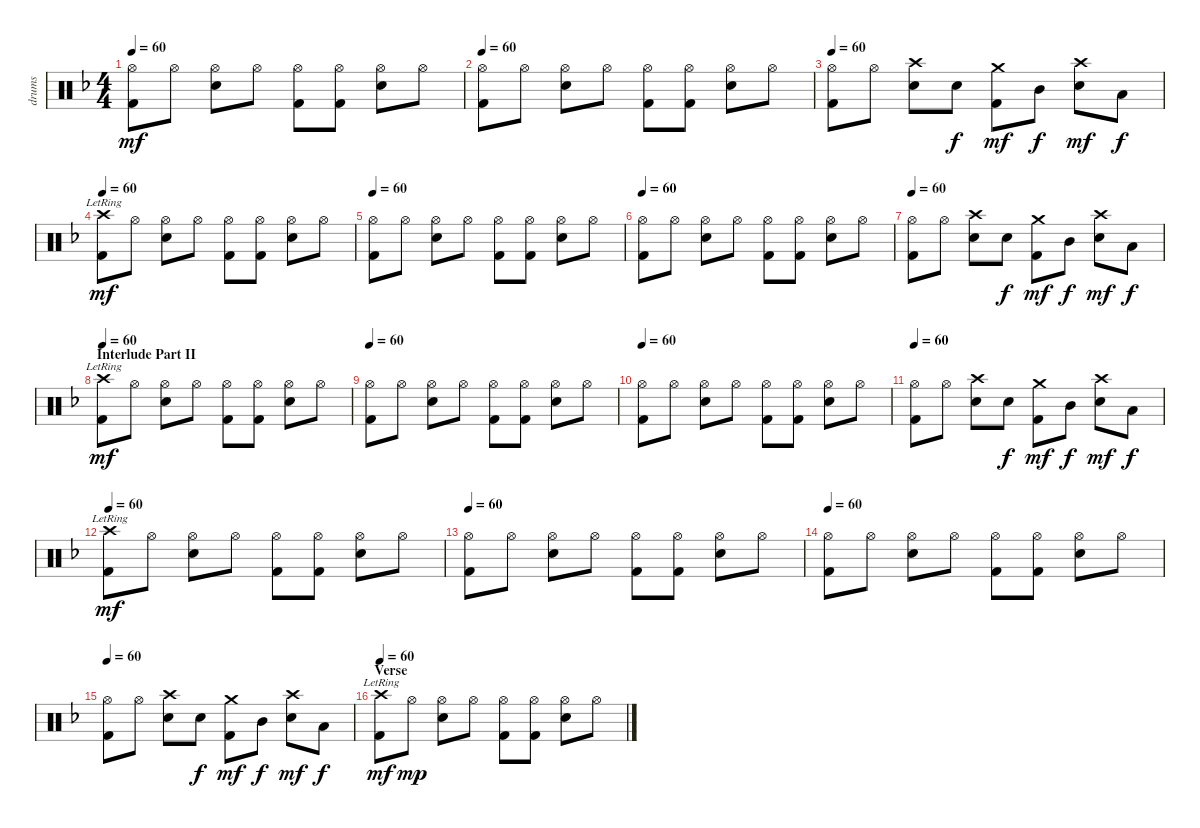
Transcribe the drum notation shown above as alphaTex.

\track ("drums" "drums") {instrument percussion}
\staff {score}
\articulation defaults
\ts (4 4)
\tempo 60
\clef neutral
\ks dminor
("Hi-Hat (open)" "Kick (hit) 2").8{dy mf} "Hi-Hat (open)".8 ("Hi-Hat (open)" "Electric Snare (hit)").8 "Hi-Hat (open)".8 ("Hi-Hat (open)" "Kick (hit) 2").8 ("Hi-Hat (open)" "Kick (hit) 2").8 ("Hi-Hat (open)" "Electric Snare (hit)").8 "Hi-Hat (open)".8 |
\tempo 60
("Hi-Hat (open)" "Kick (hit) 2").8 "Hi-Hat (open)".8 ("Hi-Hat (open)" "Electric Snare (hit)").8 "Hi-Hat (open)".8 ("Hi-Hat (open)" "Kick (hit) 2").8 ("Hi-Hat (open)" "Kick (hit) 2").8 ("Hi-Hat (open)" "Electric Snare (hit)").8 "Hi-Hat (open)".8 |
\tempo 60
("Hi-Hat (open)" "Kick (hit) 2").8 "Hi-Hat (open)".8 ("Crash high (hit)" "Electric Snare (hit)").8 "Electric Snare (hit)".8{dy f} ("Crash medium (hit)" "Kick (hit) 2").8{dy mf} "Mid Tom (hit)".8{dy f} ("Crash high (hit)" "Electric Snare (hit)").8{dy mf} "Low Tom (hit)".8{dy f} |
\tempo 60
("Crash high (hit)"{lr} "Kick (hit) 2").8{dy mf} "Hi-Hat (open)".8 ("Hi-Hat (open)" "Electric Snare (hit)").8 "Hi-Hat (open)".8 ("Hi-Hat (open)" "Kick (hit) 2").8 ("Hi-Hat (open)" "Kick (hit) 2").8 ("Hi-Hat (open)" "Electric Snare (hit)").8 "Hi-Hat (open)".8 |
\tempo 60
("Hi-Hat (open)" "Kick (hit) 2").8 "Hi-Hat (open)".8 ("Hi-Hat (open)" "Electric Snare (hit)").8 "Hi-Hat (open)".8 ("Hi-Hat (open)" "Kick (hit) 2").8 ("Hi-Hat (open)" "Kick (hit) 2").8 ("Hi-Hat (open)" "Electric Snare (hit)").8 "Hi-Hat (open)".8 |
\tempo 60
("Hi-Hat (open)" "Kick (hit) 2").8 "Hi-Hat (open)".8 ("Hi-Hat (open)" "Electric Snare (hit)").8 "Hi-Hat (open)".8 ("Hi-Hat (open)" "Kick (hit) 2").8 ("Hi-Hat (open)" "Kick (hit) 2").8 ("Hi-Hat (open)" "Electric Snare (hit)").8 "Hi-Hat (open)".8 |
\tempo 60
("Hi-Hat (open)" "Kick (hit) 2").8 "Hi-Hat (open)".8 ("Crash high (hit)" "Electric Snare (hit)").8 "Electric Snare (hit)".8{dy f} ("Crash medium (hit)" "Kick (hit) 2").8{dy mf} "Mid Tom (hit)".8{dy f} ("Crash high (hit)" "Electric Snare (hit)").8{dy mf} "Low Tom (hit)".8{dy f} |
\section ("" "Interlude Part II")
\tempo 60
("Crash high (hit)"{lr} "Kick (hit) 2").8{dy mf} "Hi-Hat (open)".8 ("Hi-Hat (open)" "Electric Snare (hit)").8 "Hi-Hat (open)".8 ("Hi-Hat (open)" "Kick (hit) 2").8 ("Hi-Hat (open)" "Kick (hit) 2").8 ("Hi-Hat (open)" "Electric Snare (hit)").8 "Hi-Hat (open)".8 |
\tempo 60
("Hi-Hat (open)" "Kick (hit) 2").8 "Hi-Hat (open)".8 ("Hi-Hat (open)" "Electric Snare (hit)").8 "Hi-Hat (open)".8 ("Hi-Hat (open)" "Kick (hit) 2").8 ("Hi-Hat (open)" "Kick (hit) 2").8 ("Hi-Hat (open)" "Electric Snare (hit)").8 "Hi-Hat (open)".8 |
\tempo 60
("Hi-Hat (open)" "Kick (hit) 2").8 "Hi-Hat (open)".8 ("Hi-Hat (open)" "Electric Snare (hit)").8 "Hi-Hat (open)".8 ("Hi-Hat (open)" "Kick (hit) 2").8 ("Hi-Hat (open)" "Kick (hit) 2").8 ("Hi-Hat (open)" "Electric Snare (hit)").8 "Hi-Hat (open)".8 |
\tempo 60
("Hi-Hat (open)" "Kick (hit) 2").8 "Hi-Hat (open)".8 ("Crash high (hit)" "Electric Snare (hit)").8 "Electric Snare (hit)".8{dy f} ("Crash medium (hit)" "Kick (hit) 2").8{dy mf} "Mid Tom (hit)".8{dy f} ("Crash high (hit)" "Electric Snare (hit)").8{dy mf} "Low Tom (hit)".8{dy f} |
\tempo 60
("Crash high (hit)"{lr} "Kick (hit) 2").8{dy mf} "Hi-Hat (open)".8 ("Hi-Hat (open)" "Electric Snare (hit)").8 "Hi-Hat (open)".8 ("Hi-Hat (open)" "Kick (hit) 2").8 ("Hi-Hat (open)" "Kick (hit) 2").8 ("Hi-Hat (open)" "Electric Snare (hit)").8 "Hi-Hat (open)".8 |
\tempo 60
("Hi-Hat (open)" "Kick (hit) 2").8 "Hi-Hat (open)".8 ("Hi-Hat (open)" "Electric Snare (hit)").8 "Hi-Hat (open)".8 ("Hi-Hat (open)" "Kick (hit) 2").8 ("Hi-Hat (open)" "Kick (hit) 2").8 ("Hi-Hat (open)" "Electric Snare (hit)").8 "Hi-Hat (open)".8 |
\tempo 60
("Hi-Hat (open)" "Kick (hit) 2").8 "Hi-Hat (open)".8 ("Hi-Hat (open)" "Electric Snare (hit)").8 "Hi-Hat (open)".8 ("Hi-Hat (open)" "Kick (hit) 2").8 ("Hi-Hat (open)" "Kick (hit) 2").8 ("Hi-Hat (open)" "Electric Snare (hit)").8 "Hi-Hat (open)".8 |
\tempo 60
("Hi-Hat (open)" "Kick (hit) 2").8 "Hi-Hat (open)".8 ("Crash high (hit)" "Electric Snare (hit)").8 "Electric Snare (hit)".8{dy f} ("Crash medium (hit)" "Kick (hit) 2").8{dy mf} "Mid Tom (hit)".8{dy f} ("Crash high (hit)" "Electric Snare (hit)").8{dy mf} "Low Tom (hit)".8{dy f} |
\section ("" "Verse ")
\tempo 60
("Crash high (hit)"{lr} "Kick (hit) 2").8{dy mf} "Hi-Hat (open)".8{dy mp} ("Hi-Hat (open)" "Electric Snare (hit)").8 "Hi-Hat (open)".8 ("Hi-Hat (open)" "Kick (hit) 2").8 ("Hi-Hat (open)" "Kick (hit) 2").8 ("Hi-Hat (open)" "Electric Snare (hit)").8 "Hi-Hat (open)".8
